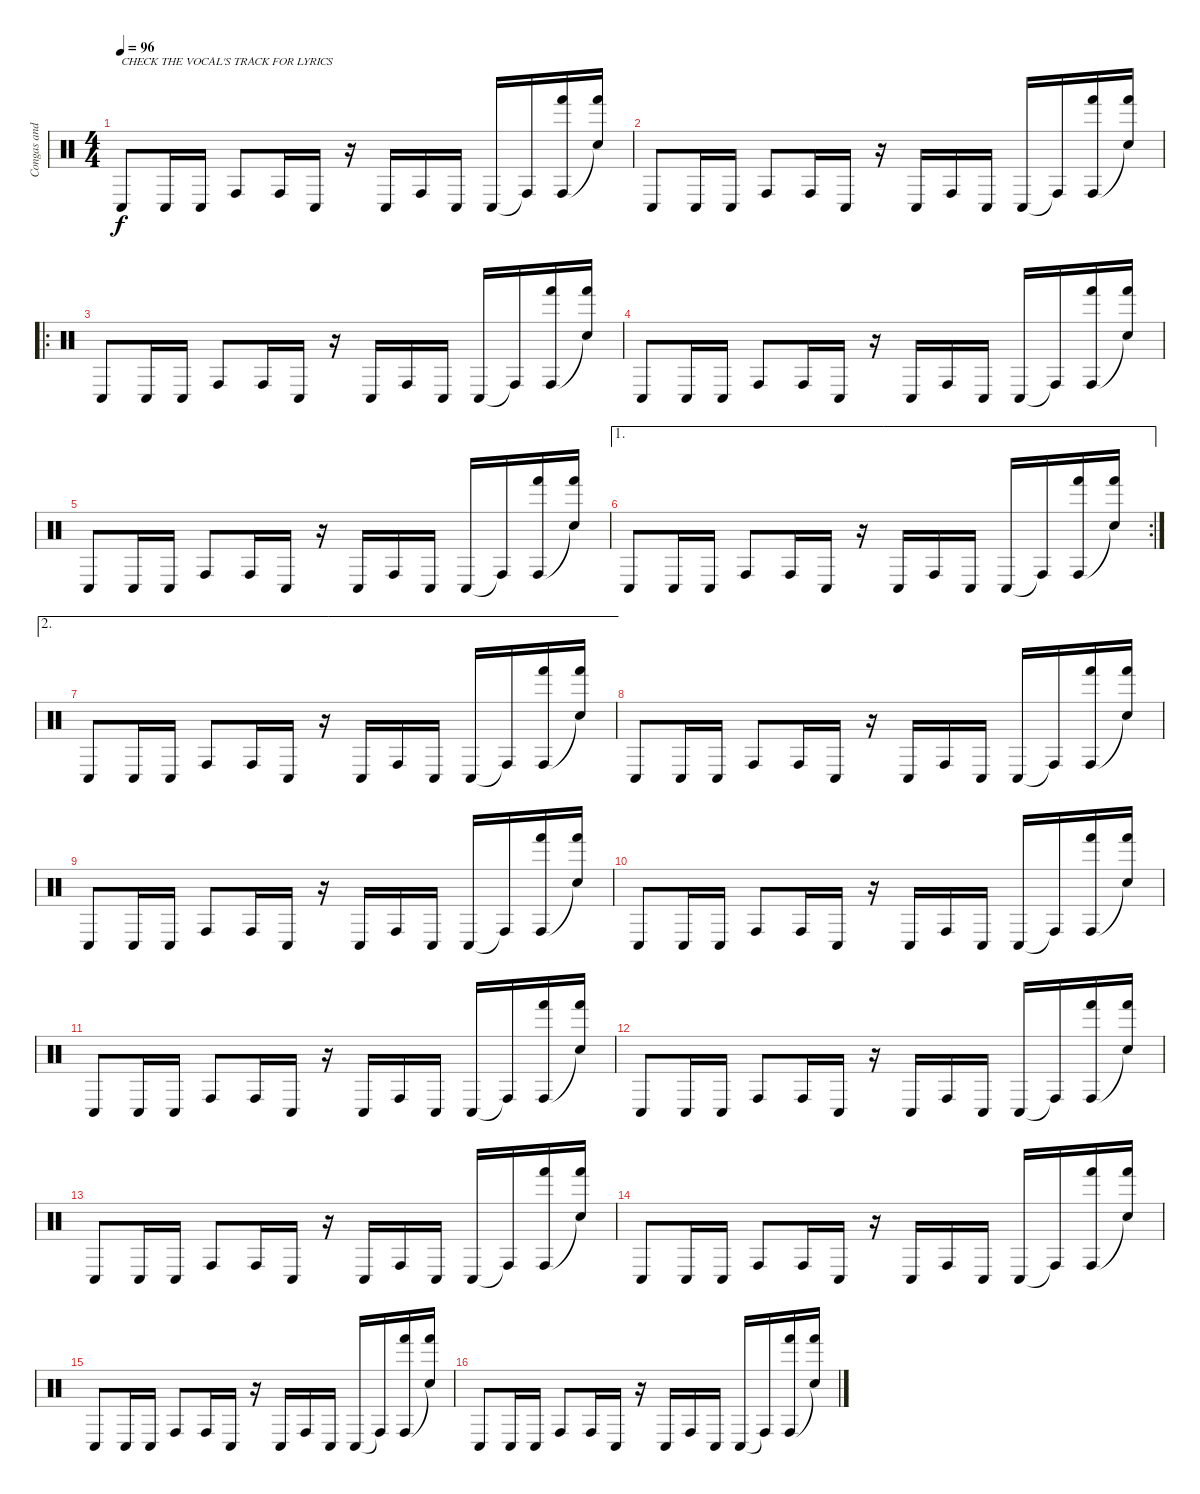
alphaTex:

\track ("Congas and Bongos" "Congas and") {instrument percussion}
\staff {score}
\articulation defaults
\ts (4 4)
\tempo 96
\clef neutral
\ks c "Conga low (hit)".8{txt "CHECK THE VOCAL'S TRACK FOR LYRICS" dy f} "Conga low (hit)".16 "Conga low (hit)".16 "Conga high (hit)".8 "Conga high (hit)".16 "Conga low (hit)".16
r.16 "Conga low (hit)".16 "Conga high (hit)".16 "Conga low (hit)".16 "Conga low (hit)".16 "Conga high (hit)"{t}.16 ("Conga high (hit)" "Hand (hit)").16 ("Snare (hit)"{t} "Hand (hit)").16 |
"Conga low (hit)".8 "Conga low (hit)".16 "Conga low (hit)".16 "Conga high (hit)".8 "Conga high (hit)".16 "Conga low (hit)".16 r.16 "Conga low (hit)".16 "Conga high (hit)".16 "Conga low (hit)".16 "Conga low (hit)".16 "Conga high (hit)"{t}.16 ("Conga high (hit)" "Hand (hit)").16 ("Snare (hit)"{t} "Hand (hit)").16 |
\ro "Conga low (hit)".8 "Conga low (hit)".16 "Conga low (hit)".16 "Conga high (hit)".8 "Conga high (hit)".16 "Conga low (hit)".16
r.16 "Conga low (hit)".16 "Conga high (hit)".16 "Conga low (hit)".16 "Conga low (hit)".16 "Conga high (hit)"{t}.16 ("Conga high (hit)" "Hand (hit)").16 ("Snare (hit)"{t} "Hand (hit)").16 |
"Conga low (hit)".8 "Conga low (hit)".16 "Conga low (hit)".16 "Conga high (hit)".8 "Conga high (hit)".16 "Conga low (hit)".16 r.16 "Conga low (hit)".16 "Conga high (hit)".16 "Conga low (hit)".16 "Conga low (hit)".16 "Conga high (hit)"{t}.16 ("Conga high (hit)" "Hand (hit)").16 ("Snare (hit)"{t} "Hand (hit)").16 |
"Conga low (hit)".8 "Conga low (hit)".16 "Conga low (hit)".16 "Conga high (hit)".8 "Conga high (hit)".16 "Conga low (hit)".16 r.16 "Conga low (hit)".16 "Conga high (hit)".16 "Conga low (hit)".16 "Conga low (hit)".16 "Conga high (hit)"{t}.16 ("Conga high (hit)" "Hand (hit)").16 ("Snare (hit)"{t} "Hand (hit)").16 |
\ae 1
\rc 2 "Conga low (hit)".8 "Conga low (hit)".16 "Conga low (hit)".16 "Conga high (hit)".8 "Conga high (hit)".16 "Conga low (hit)".16
r.16 "Conga low (hit)".16 "Conga high (hit)".16 "Conga low (hit)".16 "Conga low (hit)".16 "Conga high (hit)"{t}.16 ("Conga high (hit)" "Hand (hit)").16 ("Snare (hit)"{t} "Hand (hit)").16 |
\ae 2 "Conga low (hit)".8 "Conga low (hit)".16 "Conga low (hit)".16 "Conga high (hit)".8 "Conga high (hit)".16 "Conga low (hit)".16
r.16 "Conga low (hit)".16 "Conga high (hit)".16 "Conga low (hit)".16 "Conga low (hit)".16 "Conga high (hit)"{t}.16 ("Conga high (hit)" "Hand (hit)").16 ("Snare (hit)"{t} "Hand (hit)").16 |
"Conga low (hit)".8 "Conga low (hit)".16 "Conga low (hit)".16 "Conga high (hit)".8 "Conga high (hit)".16 "Conga low (hit)".16 r.16 "Conga low (hit)".16 "Conga high (hit)".16 "Conga low (hit)".16 "Conga low (hit)".16 "Conga high (hit)"{t}.16 ("Conga high (hit)" "Hand (hit)").16 ("Snare (hit)"{t} "Hand (hit)").16 |
"Conga low (hit)".8 "Conga low (hit)".16 "Conga low (hit)".16 "Conga high (hit)".8 "Conga high (hit)".16 "Conga low (hit)".16 r.16 "Conga low (hit)".16 "Conga high (hit)".16 "Conga low (hit)".16 "Conga low (hit)".16 "Conga high (hit)"{t}.16 ("Conga high (hit)" "Hand (hit)").16 ("Snare (hit)"{t} "Hand (hit)").16 |
"Conga low (hit)".8 "Conga low (hit)".16 "Conga low (hit)".16 "Conga high (hit)".8 "Conga high (hit)".16 "Conga low (hit)".16 r.16 "Conga low (hit)".16 "Conga high (hit)".16 "Conga low (hit)".16 "Conga low (hit)".16 "Conga high (hit)"{t}.16 ("Conga high (hit)" "Hand (hit)").16 ("Snare (hit)"{t} "Hand (hit)").16 |
"Conga low (hit)".8 "Conga low (hit)".16 "Conga low (hit)".16 "Conga high (hit)".8 "Conga high (hit)".16 "Conga low (hit)".16 r.16 "Conga low (hit)".16 "Conga high (hit)".16 "Conga low (hit)".16 "Conga low (hit)".16 "Conga high (hit)"{t}.16 ("Conga high (hit)" "Hand (hit)").16 ("Snare (hit)"{t} "Hand (hit)").16 |
"Conga low (hit)".8 "Conga low (hit)".16 "Conga low (hit)".16 "Conga high (hit)".8 "Conga high (hit)".16 "Conga low (hit)".16 r.16 "Conga low (hit)".16 "Conga high (hit)".16 "Conga low (hit)".16 "Conga low (hit)".16 "Conga high (hit)"{t}.16 ("Conga high (hit)" "Hand (hit)").16 ("Snare (hit)"{t} "Hand (hit)").16 |
"Conga low (hit)".8 "Conga low (hit)".16 "Conga low (hit)".16 "Conga high (hit)".8 "Conga high (hit)".16 "Conga low (hit)".16 r.16 "Conga low (hit)".16 "Conga high (hit)".16 "Conga low (hit)".16 "Conga low (hit)".16 "Conga high (hit)"{t}.16 ("Conga high (hit)" "Hand (hit)").16 ("Snare (hit)"{t} "Hand (hit)").16 |
"Conga low (hit)".8 "Conga low (hit)".16 "Conga low (hit)".16 "Conga high (hit)".8 "Conga high (hit)".16 "Conga low (hit)".16 r.16 "Conga low (hit)".16 "Conga high (hit)".16 "Conga low (hit)".16 "Conga low (hit)".16 "Conga high (hit)"{t}.16 ("Conga high (hit)" "Hand (hit)").16 ("Snare (hit)"{t} "Hand (hit)").16 |
"Conga low (hit)".8 "Conga low (hit)".16 "Conga low (hit)".16 "Conga high (hit)".8 "Conga high (hit)".16 "Conga low (hit)".16 r.16 "Conga low (hit)".16 "Conga high (hit)".16 "Conga low (hit)".16 "Conga low (hit)".16 "Conga high (hit)"{t}.16 ("Conga high (hit)" "Hand (hit)").16 ("Snare (hit)"{t} "Hand (hit)").16 |
"Conga low (hit)".8 "Conga low (hit)".16 "Conga low (hit)".16 "Conga high (hit)".8 "Conga high (hit)".16 "Conga low (hit)".16 r.16 "Conga low (hit)".16 "Conga high (hit)".16 "Conga low (hit)".16 "Conga low (hit)".16 "Conga high (hit)"{t}.16 ("Conga high (hit)" "Hand (hit)").16 ("Snare (hit)"{t} "Hand (hit)").16
